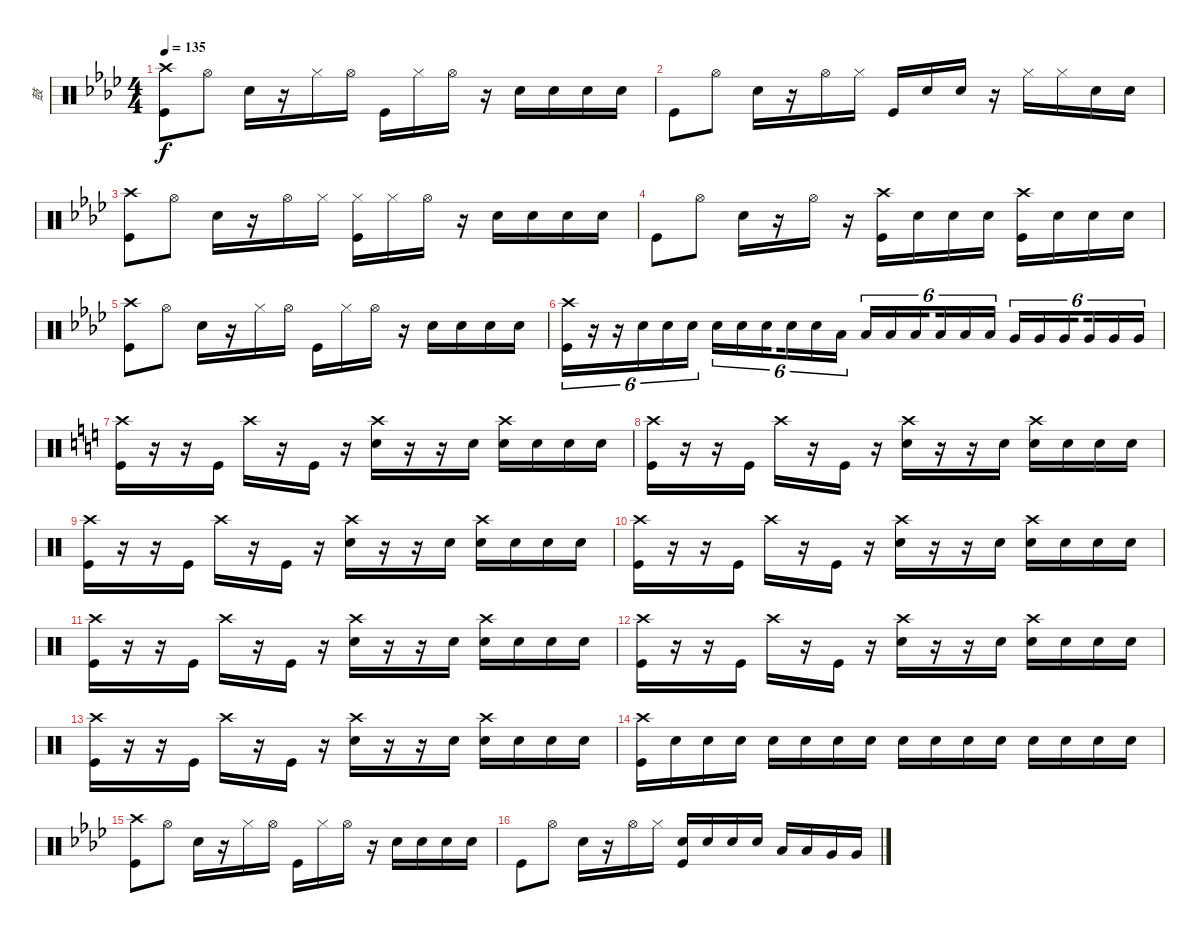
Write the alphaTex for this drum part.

\track ("鼓" "鼓") {instrument percussion}
\staff {score}
\articulation defaults
\ts (4 4)
\tempo 135
\clef neutral
\ks ab
("Crash high (hit)" "Kick (hit)").8{dy f} "Hi-Hat (open)".8 "Snare (hit) 2".16 r.16 "Hi-Hat (closed)".16 "Hi-Hat (open)".16 "Kick (hit)".16 "Hi-Hat (closed)".16 "Hi-Hat (open)".16 r.16 "Snare (hit) 2".16 "Snare (hit) 2".16 "Snare (hit) 2".16 "Snare (hit) 2".16 |
"Kick (hit)".8 "Hi-Hat (open)".8 "Snare (hit) 2".16 r.16 "Hi-Hat (open)".16 "Hi-Hat (closed)".16 "Kick (hit)".16 "Snare (hit) 2".16 "Snare (hit) 2".16 r.16 "Hi-Hat (closed)".16 "Hi-Hat (closed)".16 "Snare (hit) 2".16 "Snare (hit) 2".16 |
("Crash high (hit)" "Kick (hit)").8 "Hi-Hat (open)".8 "Snare (hit) 2".16 r.16 "Hi-Hat (open)".16 "Hi-Hat (closed)".16 ("Hi-Hat (closed)" "Kick (hit)").16 "Hi-Hat (closed)".16 "Hi-Hat (open)".16 r.16 "Snare (hit) 2".16 "Snare (hit) 2".16 "Snare (hit) 2".16 "Snare (hit) 2".16 |
"Kick (hit)".8 "Hi-Hat (open)".8 "Snare (hit) 2".16 r.16 "Hi-Hat (open)".16 r.16 ("Crash high (hit)" "Kick (hit)").16 "Snare (hit) 2".16 "Snare (hit) 2".16 "Snare (hit) 2".16 ("Crash high (hit)" "Kick (hit)").16 "Snare (hit) 2".16 "Snare (hit) 2".16 "Snare (hit) 2".16 |
("Crash high (hit)" "Kick (hit)").8 "Hi-Hat (open)".8 "Snare (hit) 2".16 r.16 "Hi-Hat (closed)".16 "Hi-Hat (open)".16 "Kick (hit)".16 "Hi-Hat (closed)".16 "Hi-Hat (open)".16 r.16 "Snare (hit) 2".16 "Snare (hit) 2".16 "Snare (hit) 2".16 "Snare (hit) 2".16 |
("Crash high (hit)" "Kick (hit)").16{tu (6 4)} r.16{tu (6 4)} r.16{tu (6 4)} "Snare (hit) 2".16{tu (6 4)} "Snare (hit) 2".16{tu (6 4)} "Snare (hit) 2".16{tu (6 4)} "Snare (hit) 2".16{tu (6 4)} "Snare (hit) 2".16{tu (6 4)} "Snare (hit) 2".16{tu (6 4) beam splitsecondary} "Snare (hit) 2".16{tu (6 4)} "Snare (hit) 2".16{tu (6 4)} "Low Tom (hit)".16{tu (6 4)} "Low Tom (hit)".16{tu (6 4)} "Low Tom (hit)".16{tu (6 4)} "Low Tom (hit)".16{tu (6 4) beam splitsecondary} "Low Tom (hit)".16{tu (6 4)} "Low Tom (hit)".16{tu (6 4)} "Low Tom (hit)".16{tu (6 4)} "Very Low Tom (hit)".16{tu (6 4)} "Very Low Tom (hit)".16{tu (6 4)} "Very Low Tom (hit)".16{tu (6 4) beam splitsecondary} "Very Low Tom (hit)".16{tu (6 4)} "Very Low Tom (hit)".16{tu (6 4)} "Very Low Tom (hit)".16{tu (6 4)} |
\ks c
("Crash high (hit)" "Kick (hit)").16 r.16 r.16 "Kick (hit)".16 "Crash high (hit)".16 r.16 "Kick (hit)".16 r.16 ("Crash high (hit)" "Snare (hit) 2").16 r.16 r.16 "Snare (hit) 2".16 ("Crash high (hit)" "Snare (hit) 2").16 "Snare (hit) 2".16 "Snare (hit) 2".16 "Snare (hit) 2".16 |
("Crash high (hit)" "Kick (hit)").16 r.16 r.16 "Kick (hit)".16 "Crash high (hit)".16 r.16 "Kick (hit)".16 r.16 ("Crash high (hit)" "Snare (hit) 2").16 r.16 r.16 "Snare (hit) 2".16 ("Crash high (hit)" "Snare (hit) 2").16 "Snare (hit) 2".16 "Snare (hit) 2".16 "Snare (hit) 2".16 |
("Crash high (hit)" "Kick (hit)").16 r.16 r.16 "Kick (hit)".16 "Crash high (hit)".16 r.16 "Kick (hit)".16 r.16 ("Crash high (hit)" "Snare (hit) 2").16 r.16 r.16 "Snare (hit) 2".16 ("Crash high (hit)" "Snare (hit) 2").16 "Snare (hit) 2".16 "Snare (hit) 2".16 "Snare (hit) 2".16 |
("Crash high (hit)" "Kick (hit)").16 r.16 r.16 "Kick (hit)".16 "Crash high (hit)".16 r.16 "Kick (hit)".16 r.16 ("Crash high (hit)" "Snare (hit) 2").16 r.16 r.16 "Snare (hit) 2".16 ("Crash high (hit)" "Snare (hit) 2").16 "Snare (hit) 2".16 "Snare (hit) 2".16 "Snare (hit) 2".16 |
("Crash high (hit)" "Kick (hit)").16 r.16 r.16 "Kick (hit)".16 "Crash high (hit)".16 r.16 "Kick (hit)".16 r.16 ("Crash high (hit)" "Snare (hit) 2").16 r.16 r.16 "Snare (hit) 2".16 ("Crash high (hit)" "Snare (hit) 2").16 "Snare (hit) 2".16 "Snare (hit) 2".16 "Snare (hit) 2".16 |
("Crash high (hit)" "Kick (hit)").16 r.16 r.16 "Kick (hit)".16 "Crash high (hit)".16 r.16 "Kick (hit)".16 r.16 ("Crash high (hit)" "Snare (hit) 2").16 r.16 r.16 "Snare (hit) 2".16 ("Crash high (hit)" "Snare (hit) 2").16 "Snare (hit) 2".16 "Snare (hit) 2".16 "Snare (hit) 2".16 |
("Crash high (hit)" "Kick (hit)").16 r.16 r.16 "Kick (hit)".16 "Crash high (hit)".16 r.16 "Kick (hit)".16 r.16 ("Crash high (hit)" "Snare (hit) 2").16 r.16 r.16 "Snare (hit) 2".16 ("Crash high (hit)" "Snare (hit) 2").16 "Snare (hit) 2".16 "Snare (hit) 2".16 "Snare (hit) 2".16 |
("Crash high (hit)" "Kick (hit)").16 "Snare (hit) 2".16 "Snare (hit) 2".16 "Snare (hit) 2".16 "Snare (hit) 2".16 "Snare (hit) 2".16 "Snare (hit) 2".16 "Snare (hit) 2".16 "Snare (hit) 2".16 "Snare (hit) 2".16 "Snare (hit) 2".16 "Snare (hit) 2".16 "Snare (hit) 2".16 "Snare (hit) 2".16 "Snare (hit) 2".16 "Snare (hit) 2".16 |
\ks ab
("Crash high (hit)" "Kick (hit)").8 "Hi-Hat (open)".8 "Snare (hit) 2".16 r.16 "Hi-Hat (closed)".16 "Hi-Hat (open)".16 "Kick (hit)".16 "Hi-Hat (closed)".16 "Hi-Hat (open)".16 r.16 "Snare (hit) 2".16 "Snare (hit) 2".16 "Snare (hit) 2".16 "Snare (hit) 2".16 |
"Kick (hit)".8 "Hi-Hat (open)".8 "Snare (hit) 2".16 r.16 "Hi-Hat (open)".16 "Hi-Hat (closed)".16 ("Snare (hit) 2" "Kick (hit)").16 "Snare (hit) 2".16 "Snare (hit) 2".16 "Snare (hit) 2".16 "Low Tom (hit)".16 "Low Tom (hit)".16 "Very Low Tom (hit)".16 "Very Low Tom (hit)".16
